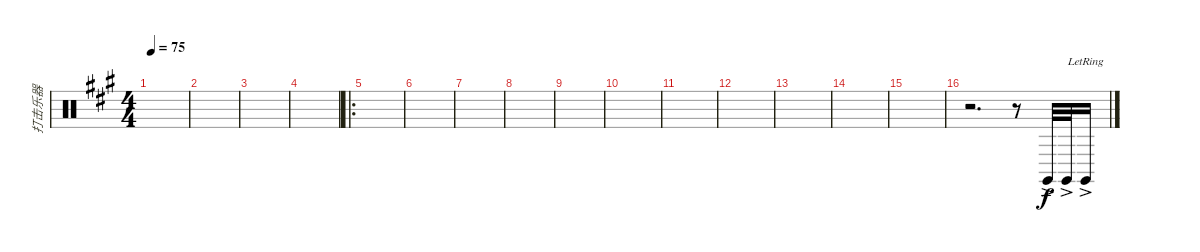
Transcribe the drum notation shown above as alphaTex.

\track ("打击乐器" "打击乐器") {instrument percussion}
\staff {score}
\articulation defaults
\ts (4 4)
\tempo 75
\clef neutral
\ks a
|
|
|
|
\ro
|
|
|
|
|
|
|
|
|
|
|
r.2{d} r.8 "Claves (hit)"{ac}.32 "Claves (hit)"{ac}.32 "Claves (hit)"{ac lr}.16
